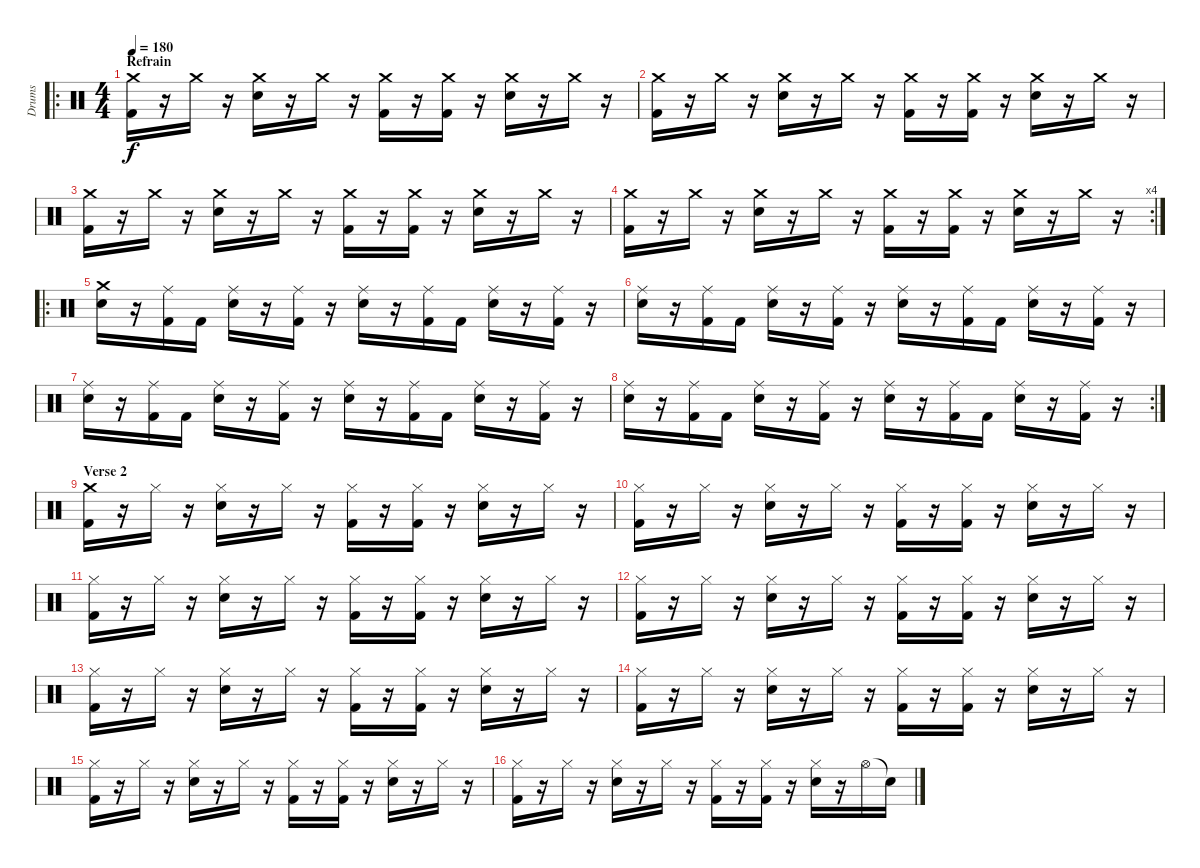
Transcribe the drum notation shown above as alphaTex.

\track ("Drums" "Drums") {instrument percussion}
\staff {score}
\articulation defaults
\ro
\ts (4 4)
\section ("" "Refrain")
\tempo 180
\clef neutral
\ks c
("Crash medium (hit)" "Kick (hit) 2").16{dy f} r.16 "Crash medium (hit)".16 r.16 ("Crash medium (hit)" "Electric Snare (hit)").16 r.16 "Crash medium (hit)".16 r.16 ("Crash medium (hit)" "Kick (hit) 2").16 r.16 ("Crash medium (hit)" "Kick (hit) 2").16 r.16 ("Crash medium (hit)" "Electric Snare (hit)").16 r.16 "Crash medium (hit)".16 r.16 |
("Crash medium (hit)" "Kick (hit) 2").16 r.16 "Crash medium (hit)".16 r.16 ("Crash medium (hit)" "Electric Snare (hit)").16 r.16 "Crash medium (hit)".16 r.16 ("Crash medium (hit)" "Kick (hit) 2").16 r.16 ("Crash medium (hit)" "Kick (hit) 2").16 r.16 ("Crash medium (hit)" "Electric Snare (hit)").16 r.16 "Crash medium (hit)".16 r.16 |
("Crash medium (hit)" "Kick (hit) 2").16 r.16 "Crash medium (hit)".16 r.16 ("Crash medium (hit)" "Electric Snare (hit)").16 r.16 "Crash medium (hit)".16 r.16 ("Crash medium (hit)" "Kick (hit) 2").16 r.16 ("Crash medium (hit)" "Kick (hit) 2").16 r.16 ("Crash medium (hit)" "Electric Snare (hit)").16 r.16 "Crash medium (hit)".16 r.16 |
\rc 4
("Crash medium (hit)" "Kick (hit) 2").16 r.16 "Crash medium (hit)".16 r.16 ("Crash medium (hit)" "Electric Snare (hit)").16 r.16 "Crash medium (hit)".16 r.16 ("Crash medium (hit)" "Kick (hit) 2").16 r.16 ("Crash medium (hit)" "Kick (hit) 2").16 r.16 ("Crash medium (hit)" "Electric Snare (hit)").16 r.16 "Crash medium (hit)".16 r.16 |
\ro
("Crash medium (hit)" "Electric Snare (hit)").16 r.16 ("Ride (middle)" "Kick (hit) 2").16 "Kick (hit) 2".16 ("Ride (middle)" "Electric Snare (hit)").16 r.16 ("Ride (middle)" "Kick (hit) 2").16 r.16 ("Ride (middle)" "Electric Snare (hit)").16 r.16 ("Ride (middle)" "Kick (hit) 2").16 "Kick (hit) 2".16 ("Ride (middle)" "Electric Snare (hit)").16 r.16 ("Ride (middle)" "Kick (hit) 2").16 r.16 |
("Ride (middle)" "Electric Snare (hit)").16 r.16 ("Ride (middle)" "Kick (hit) 2").16 "Kick (hit) 2".16 ("Ride (middle)" "Electric Snare (hit)").16 r.16 ("Ride (middle)" "Kick (hit) 2").16 r.16 ("Ride (middle)" "Electric Snare (hit)").16 r.16 ("Ride (middle)" "Kick (hit) 2").16 "Kick (hit) 2".16 ("Ride (middle)" "Electric Snare (hit)").16 r.16 ("Ride (middle)" "Kick (hit) 2").16 r.16 |
("Ride (middle)" "Electric Snare (hit)").16 r.16 ("Ride (middle)" "Kick (hit) 2").16 "Kick (hit) 2".16 ("Ride (middle)" "Electric Snare (hit)").16 r.16 ("Ride (middle)" "Kick (hit) 2").16 r.16 ("Ride (middle)" "Electric Snare (hit)").16 r.16 ("Ride (middle)" "Kick (hit) 2").16 "Kick (hit) 2".16 ("Ride (middle)" "Electric Snare (hit)").16 r.16 ("Ride (middle)" "Kick (hit) 2").16 r.16 |
\rc 2
("Ride (middle)" "Electric Snare (hit)").16 r.16 ("Ride (middle)" "Kick (hit) 2").16 "Kick (hit) 2".16 ("Ride (middle)" "Electric Snare (hit)").16 r.16 ("Ride (middle)" "Kick (hit) 2").16 r.16 ("Ride (middle)" "Electric Snare (hit)").16 r.16 ("Ride (middle)" "Kick (hit) 2").16 "Kick (hit) 2".16 ("Ride (middle)" "Electric Snare (hit)").16 r.16 ("Ride (middle)" "Kick (hit) 2").16 r.16 |
\section ("" "Verse 2")
("Crash medium (hit)" "Kick (hit) 2").16 r.16 "Hi-Hat (closed)".16 r.16 ("Hi-Hat (closed)" "Electric Snare (hit)").16 r.16 "Hi-Hat (closed)".16 r.16 ("Hi-Hat (closed)" "Kick (hit) 2").16 r.16 ("Hi-Hat (closed)" "Kick (hit) 2").16 r.16 ("Hi-Hat (closed)" "Electric Snare (hit)").16 r.16 "Hi-Hat (closed)".16 r.16 |
("Hi-Hat (closed)" "Kick (hit) 2").16 r.16 "Hi-Hat (closed)".16 r.16 ("Hi-Hat (closed)" "Electric Snare (hit)").16 r.16 "Hi-Hat (closed)".16 r.16 ("Hi-Hat (closed)" "Kick (hit) 2").16 r.16 ("Hi-Hat (closed)" "Kick (hit) 2").16 r.16 ("Hi-Hat (closed)" "Electric Snare (hit)").16 r.16 "Hi-Hat (closed)".16 r.16 |
("Hi-Hat (closed)" "Kick (hit) 2").16 r.16 "Hi-Hat (closed)".16 r.16 ("Hi-Hat (closed)" "Electric Snare (hit)").16 r.16 "Hi-Hat (closed)".16 r.16 ("Hi-Hat (closed)" "Kick (hit) 2").16 r.16 ("Hi-Hat (closed)" "Kick (hit) 2").16 r.16 ("Hi-Hat (closed)" "Electric Snare (hit)").16 r.16 "Hi-Hat (closed)".16 r.16 |
("Hi-Hat (closed)" "Kick (hit) 2").16 r.16 "Hi-Hat (closed)".16 r.16 ("Hi-Hat (closed)" "Electric Snare (hit)").16 r.16 "Hi-Hat (closed)".16 r.16 ("Hi-Hat (closed)" "Kick (hit) 2").16 r.16 ("Hi-Hat (closed)" "Kick (hit) 2").16 r.16 ("Hi-Hat (closed)" "Electric Snare (hit)").16 r.16 "Hi-Hat (closed)".16 r.16 |
("Hi-Hat (closed)" "Kick (hit) 2").16 r.16 "Hi-Hat (closed)".16 r.16 ("Hi-Hat (closed)" "Electric Snare (hit)").16 r.16 "Hi-Hat (closed)".16 r.16 ("Hi-Hat (closed)" "Kick (hit) 2").16 r.16 ("Hi-Hat (closed)" "Kick (hit) 2").16 r.16 ("Hi-Hat (closed)" "Electric Snare (hit)").16 r.16 "Hi-Hat (closed)".16 r.16 |
("Hi-Hat (closed)" "Kick (hit) 2").16 r.16 "Hi-Hat (closed)".16 r.16 ("Hi-Hat (closed)" "Electric Snare (hit)").16 r.16 "Hi-Hat (closed)".16 r.16 ("Hi-Hat (closed)" "Kick (hit) 2").16 r.16 ("Hi-Hat (closed)" "Kick (hit) 2").16 r.16 ("Hi-Hat (closed)" "Electric Snare (hit)").16 r.16 "Hi-Hat (closed)".16 r.16 |
("Hi-Hat (closed)" "Kick (hit) 2").16 r.16 "Hi-Hat (closed)".16 r.16 ("Hi-Hat (closed)" "Electric Snare (hit)").16 r.16 "Hi-Hat (closed)".16 r.16 ("Hi-Hat (closed)" "Kick (hit) 2").16 r.16 ("Hi-Hat (closed)" "Kick (hit) 2").16 r.16 ("Hi-Hat (closed)" "Electric Snare (hit)").16 r.16 "Hi-Hat (closed)".16 r.16 |
("Hi-Hat (closed)" "Kick (hit) 2").16 r.16 "Hi-Hat (closed)".16 r.16 ("Hi-Hat (closed)" "Electric Snare (hit)").16 r.16 "Hi-Hat (closed)".16 r.16 ("Hi-Hat (closed)" "Kick (hit) 2").16 r.16 ("Hi-Hat (closed)" "Kick (hit) 2").16 r.16 ("Hi-Hat (closed)" "Electric Snare (hit)").16 r.16 "Hi-Hat (open)".16 "Snare (hit)"{t}.16
